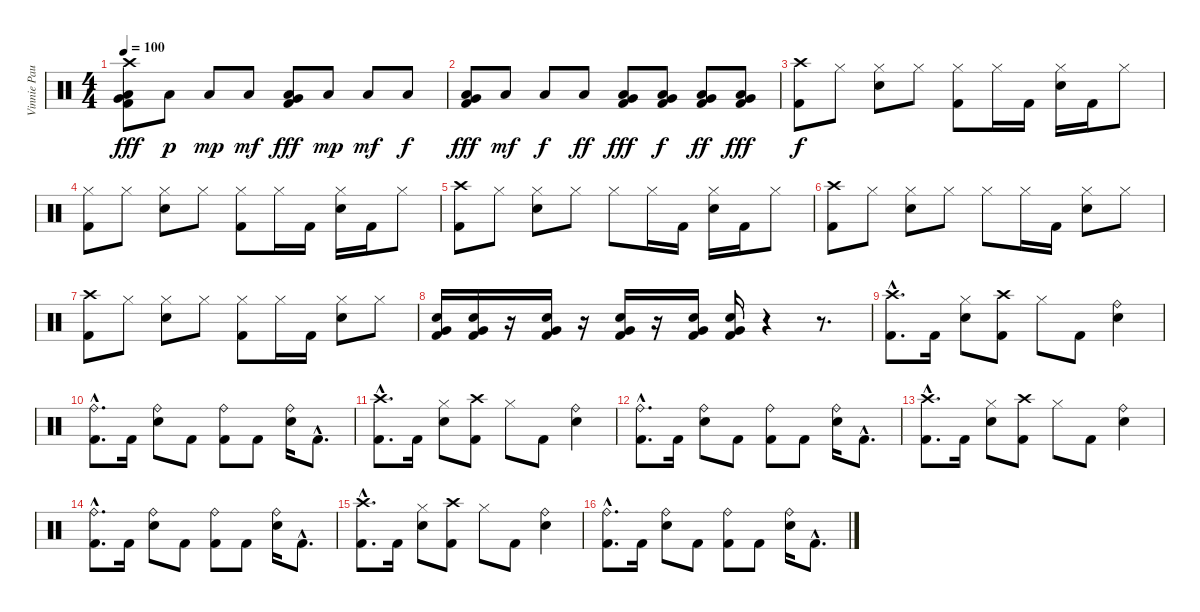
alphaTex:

\track ("Vinnie Paul # Drums" "Vinnie Pau") {instrument percussion}
\staff {score}
\articulation defaults
\ts (4 4)
\tempo 100
\clef neutral
\ks c
("Crash high (hit)" "Very Low Tom (hit)" "Low Floor Tom (hit)" "Kick (hit) 2").8{dy fff} "Low Floor Tom (hit)".8{dy p} "Low Floor Tom (hit)".8{dy mp} "Low Floor Tom (hit)".8{dy mf} ("Very Low Tom (hit)" "Low Floor Tom (hit)" "Kick (hit) 2").8{dy fff} "Low Floor Tom (hit)".8{dy mp} "Low Floor Tom (hit)".8{dy mf} "Low Floor Tom (hit)".8{dy f} |
("Very Low Tom (hit)" "Low Floor Tom (hit)" "Kick (hit) 2").8{dy fff} "Low Floor Tom (hit)".8{dy mf} "Low Floor Tom (hit)".8{dy f} "Low Floor Tom (hit)".8{dy ff} ("Very Low Tom (hit)" "Low Floor Tom (hit)" "Kick (hit) 2").8{dy fff} ("Very Low Tom (hit)" "Low Floor Tom (hit)" "Kick (hit) 2").8{dy f} ("Very Low Tom (hit)" "Low Floor Tom (hit)" "Kick (hit) 2").8{dy ff} ("Very Low Tom (hit)" "Low Floor Tom (hit)" "Kick (hit) 2").8{dy fff} |
("Crash high (hit)" "Kick (hit) 2").8{dy f} "Hi-Hat (closed)".8 ("Hi-Hat (closed)" "Electric Snare (hit)").8 "Hi-Hat (closed)".8 ("Hi-Hat (closed)" "Kick (hit) 2").8 "Hi-Hat (closed)".16 "Kick (hit) 2".16 ("Hi-Hat (closed)" "Electric Snare (hit)").16 "Kick (hit) 2".16 "Hi-Hat (closed)".8 |
("Hi-Hat (closed)" "Kick (hit) 2").8 "Hi-Hat (closed)".8 ("Hi-Hat (closed)" "Electric Snare (hit)").8 "Hi-Hat (closed)".8 ("Hi-Hat (closed)" "Kick (hit) 2").8 "Hi-Hat (closed)".16 "Kick (hit) 2".16 ("Hi-Hat (closed)" "Electric Snare (hit)").16 "Kick (hit) 2".16 "Hi-Hat (closed)".8 |
("Crash high (hit)" "Kick (hit) 2").8 "Hi-Hat (closed)".8 ("Hi-Hat (closed)" "Electric Snare (hit)").8 "Hi-Hat (closed)".8 "Hi-Hat (closed)".8 "Hi-Hat (closed)".16 "Kick (hit) 2".16 ("Hi-Hat (closed)" "Electric Snare (hit)").16 "Kick (hit) 2".16 "Hi-Hat (closed)".8 |
("Crash high (hit)" "Kick (hit) 2").8 "Hi-Hat (closed)".8 ("Hi-Hat (closed)" "Electric Snare (hit)").8 "Hi-Hat (closed)".8 "Hi-Hat (closed)".8 "Hi-Hat (closed)".16 "Kick (hit) 2".16 ("Hi-Hat (closed)" "Electric Snare (hit)").8 "Hi-Hat (closed)".8 |
("Crash high (hit)" "Kick (hit) 2").8 "Hi-Hat (closed)".8 ("Hi-Hat (closed)" "Electric Snare (hit)").8 "Hi-Hat (closed)".8 ("Hi-Hat (closed)" "Kick (hit) 2").8 "Hi-Hat (closed)".16 "Kick (hit) 2".16 ("Hi-Hat (closed)" "Electric Snare (hit)").8 "Hi-Hat (closed)".8 |
("Very Low Tom (hit)" "Electric Snare (hit)" "Kick (hit) 2").16 ("Very Low Tom (hit)" "Electric Snare (hit)" "Kick (hit) 2").16 r.16 ("Very Low Tom (hit)" "Electric Snare (hit)" "Kick (hit) 2").16 r.16 ("Very Low Tom (hit)" "Electric Snare (hit)" "Kick (hit) 2").16 r.16 ("Very Low Tom (hit)" "Electric Snare (hit)" "Kick (hit) 2").16 ("Very Low Tom (hit)" "Electric Snare (hit)" "Kick (hit) 2").16 r.4 r.8{d} |
("Crash high (hit)"{hac} "Kick (hit) 2"{hac}).8{d} "Kick (hit) 2".16 ("Hi-Hat (closed)" "Electric Snare (hit)").8 ("Crash high (hit)" "Kick (hit) 2").8 "Hi-Hat (closed)".8 "Kick (hit) 2".8 ("Ride (bell)" "Electric Snare (hit)").4 |
("Ride (bell)"{hac} "Kick (hit) 2"{hac}).8{d} "Kick (hit) 2".16 ("Ride (bell)" "Electric Snare (hit)").8 "Kick (hit) 2".8 ("Ride (bell)" "Kick (hit) 2").8 "Kick (hit) 2".8 ("Ride (bell)" "Electric Snare (hit)").16 "Kick (hit) 2"{hac}.8{d} |
("Crash high (hit)"{hac} "Kick (hit) 2"{hac}).8{d} "Kick (hit) 2".16 ("Hi-Hat (closed)" "Electric Snare (hit)").8 ("Crash high (hit)" "Kick (hit) 2").8 "Hi-Hat (closed)".8 "Kick (hit) 2".8 ("Ride (bell)" "Electric Snare (hit)").4 |
("Ride (bell)"{hac} "Kick (hit) 2"{hac}).8{d} "Kick (hit) 2".16 ("Ride (bell)" "Electric Snare (hit)").8 "Kick (hit) 2".8 ("Ride (bell)" "Kick (hit) 2").8 "Kick (hit) 2".8 ("Ride (bell)" "Electric Snare (hit)").16 "Kick (hit) 2"{hac}.8{d} |
("Crash high (hit)"{hac} "Kick (hit) 2"{hac}).8{d} "Kick (hit) 2".16 ("Hi-Hat (closed)" "Electric Snare (hit)").8 ("Crash high (hit)" "Kick (hit) 2").8 "Hi-Hat (closed)".8 "Kick (hit) 2".8 ("Ride (bell)" "Electric Snare (hit)").4 |
("Ride (bell)"{hac} "Kick (hit) 2"{hac}).8{d} "Kick (hit) 2".16 ("Ride (bell)" "Electric Snare (hit)").8 "Kick (hit) 2".8 ("Ride (bell)" "Kick (hit) 2").8 "Kick (hit) 2".8 ("Ride (bell)" "Electric Snare (hit)").16 "Kick (hit) 2"{hac}.8{d} |
("Crash high (hit)"{hac} "Kick (hit) 2"{hac}).8{d} "Kick (hit) 2".16 ("Hi-Hat (closed)" "Electric Snare (hit)").8 ("Crash high (hit)" "Kick (hit) 2").8 "Hi-Hat (closed)".8 "Kick (hit) 2".8 ("Ride (bell)" "Electric Snare (hit)").4 |
("Ride (bell)"{hac} "Kick (hit) 2"{hac}).8{d} "Kick (hit) 2".16 ("Ride (bell)" "Electric Snare (hit)").8 "Kick (hit) 2".8 ("Ride (bell)" "Kick (hit) 2").8 "Kick (hit) 2".8 ("Ride (bell)" "Electric Snare (hit)").16 "Kick (hit) 2"{hac}.8{d}
